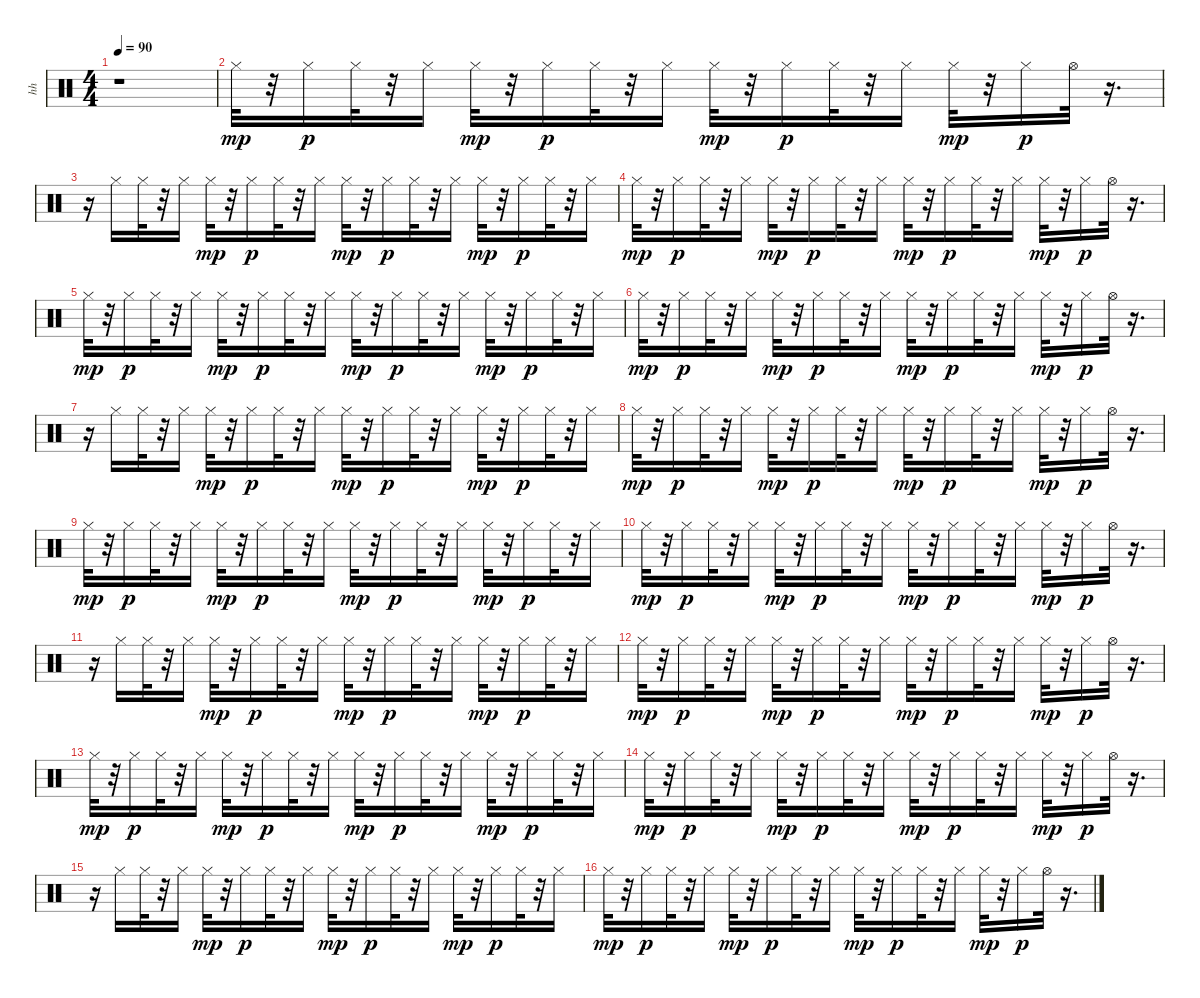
\track ("hh" "hh") {instrument percussion}
\staff {score}
\articulation defaults
\ts (4 4)
\tempo 90
\clef neutral
\ks c
r.1{dy mp} |
"Hi-Hat (closed)".32 r.32 "Hi-Hat (closed)".16{dy p} "Hi-Hat (closed)".32 r.32 "Hi-Hat (closed)".16 "Hi-Hat (closed)".32{dy mp} r.32 "Hi-Hat (closed)".16{dy p} "Hi-Hat (closed)".32 r.32 "Hi-Hat (closed)".16 "Hi-Hat (closed)".32{dy mp} r.32 "Hi-Hat (closed)".16{dy p} "Hi-Hat (closed)".32 r.32 "Hi-Hat (closed)".16 "Hi-Hat (closed)".32{dy mp} r.32 "Hi-Hat (closed)".16{dy p} "Hi-Hat (open)".32 r.16{d} |
r.16 "Hi-Hat (closed)".16 "Hi-Hat (closed)".32 r.32 "Hi-Hat (closed)".16 "Hi-Hat (closed)".32{dy mp} r.32 "Hi-Hat (closed)".16{dy p} "Hi-Hat (closed)".32 r.32 "Hi-Hat (closed)".16 "Hi-Hat (closed)".32{dy mp} r.32 "Hi-Hat (closed)".16{dy p} "Hi-Hat (closed)".32 r.32 "Hi-Hat (closed)".16 "Hi-Hat (closed)".32{dy mp} r.32 "Hi-Hat (closed)".16{dy p} "Hi-Hat (closed)".32 r.32 "Hi-Hat (closed)".16 |
"Hi-Hat (closed)".32{dy mp} r.32 "Hi-Hat (closed)".16{dy p} "Hi-Hat (closed)".32 r.32 "Hi-Hat (closed)".16 "Hi-Hat (closed)".32{dy mp} r.32 "Hi-Hat (closed)".16{dy p} "Hi-Hat (closed)".32 r.32 "Hi-Hat (closed)".16 "Hi-Hat (closed)".32{dy mp} r.32 "Hi-Hat (closed)".16{dy p} "Hi-Hat (closed)".32 r.32 "Hi-Hat (closed)".16 "Hi-Hat (closed)".32{dy mp} r.32 "Hi-Hat (closed)".16{dy p} "Hi-Hat (open)".32 r.16{d} |
"Hi-Hat (closed)".32{dy mp} r.32 "Hi-Hat (closed)".16{dy p} "Hi-Hat (closed)".32 r.32 "Hi-Hat (closed)".16 "Hi-Hat (closed)".32{dy mp} r.32 "Hi-Hat (closed)".16{dy p} "Hi-Hat (closed)".32 r.32 "Hi-Hat (closed)".16 "Hi-Hat (closed)".32{dy mp} r.32 "Hi-Hat (closed)".16{dy p} "Hi-Hat (closed)".32 r.32 "Hi-Hat (closed)".16 "Hi-Hat (closed)".32{dy mp} r.32 "Hi-Hat (closed)".16{dy p} "Hi-Hat (closed)".32 r.32 "Hi-Hat (closed)".16 |
"Hi-Hat (closed)".32{dy mp} r.32 "Hi-Hat (closed)".16{dy p} "Hi-Hat (closed)".32 r.32 "Hi-Hat (closed)".16 "Hi-Hat (closed)".32{dy mp} r.32 "Hi-Hat (closed)".16{dy p} "Hi-Hat (closed)".32 r.32 "Hi-Hat (closed)".16 "Hi-Hat (closed)".32{dy mp} r.32 "Hi-Hat (closed)".16{dy p} "Hi-Hat (closed)".32 r.32 "Hi-Hat (closed)".16 "Hi-Hat (closed)".32{dy mp} r.32 "Hi-Hat (closed)".16{dy p} "Hi-Hat (open)".32 r.16{d} |
r.16 "Hi-Hat (closed)".16 "Hi-Hat (closed)".32 r.32 "Hi-Hat (closed)".16 "Hi-Hat (closed)".32{dy mp} r.32 "Hi-Hat (closed)".16{dy p} "Hi-Hat (closed)".32 r.32 "Hi-Hat (closed)".16 "Hi-Hat (closed)".32{dy mp} r.32 "Hi-Hat (closed)".16{dy p} "Hi-Hat (closed)".32 r.32 "Hi-Hat (closed)".16 "Hi-Hat (closed)".32{dy mp} r.32 "Hi-Hat (closed)".16{dy p} "Hi-Hat (closed)".32 r.32 "Hi-Hat (closed)".16 |
"Hi-Hat (closed)".32{dy mp} r.32 "Hi-Hat (closed)".16{dy p} "Hi-Hat (closed)".32 r.32 "Hi-Hat (closed)".16 "Hi-Hat (closed)".32{dy mp} r.32 "Hi-Hat (closed)".16{dy p} "Hi-Hat (closed)".32 r.32 "Hi-Hat (closed)".16 "Hi-Hat (closed)".32{dy mp} r.32 "Hi-Hat (closed)".16{dy p} "Hi-Hat (closed)".32 r.32 "Hi-Hat (closed)".16 "Hi-Hat (closed)".32{dy mp} r.32 "Hi-Hat (closed)".16{dy p} "Hi-Hat (open)".32 r.16{d} |
"Hi-Hat (closed)".32{dy mp} r.32 "Hi-Hat (closed)".16{dy p} "Hi-Hat (closed)".32 r.32 "Hi-Hat (closed)".16 "Hi-Hat (closed)".32{dy mp} r.32 "Hi-Hat (closed)".16{dy p} "Hi-Hat (closed)".32 r.32 "Hi-Hat (closed)".16 "Hi-Hat (closed)".32{dy mp} r.32 "Hi-Hat (closed)".16{dy p} "Hi-Hat (closed)".32 r.32 "Hi-Hat (closed)".16 "Hi-Hat (closed)".32{dy mp} r.32 "Hi-Hat (closed)".16{dy p} "Hi-Hat (closed)".32 r.32 "Hi-Hat (closed)".16 |
"Hi-Hat (closed)".32{dy mp} r.32 "Hi-Hat (closed)".16{dy p} "Hi-Hat (closed)".32 r.32 "Hi-Hat (closed)".16 "Hi-Hat (closed)".32{dy mp} r.32 "Hi-Hat (closed)".16{dy p} "Hi-Hat (closed)".32 r.32 "Hi-Hat (closed)".16 "Hi-Hat (closed)".32{dy mp} r.32 "Hi-Hat (closed)".16{dy p} "Hi-Hat (closed)".32 r.32 "Hi-Hat (closed)".16 "Hi-Hat (closed)".32{dy mp} r.32 "Hi-Hat (closed)".16{dy p} "Hi-Hat (open)".32 r.16{d} |
r.16 "Hi-Hat (closed)".16 "Hi-Hat (closed)".32 r.32 "Hi-Hat (closed)".16 "Hi-Hat (closed)".32{dy mp} r.32 "Hi-Hat (closed)".16{dy p} "Hi-Hat (closed)".32 r.32 "Hi-Hat (closed)".16 "Hi-Hat (closed)".32{dy mp} r.32 "Hi-Hat (closed)".16{dy p} "Hi-Hat (closed)".32 r.32 "Hi-Hat (closed)".16 "Hi-Hat (closed)".32{dy mp} r.32 "Hi-Hat (closed)".16{dy p} "Hi-Hat (closed)".32 r.32 "Hi-Hat (closed)".16 |
"Hi-Hat (closed)".32{dy mp} r.32 "Hi-Hat (closed)".16{dy p} "Hi-Hat (closed)".32 r.32 "Hi-Hat (closed)".16 "Hi-Hat (closed)".32{dy mp} r.32 "Hi-Hat (closed)".16{dy p} "Hi-Hat (closed)".32 r.32 "Hi-Hat (closed)".16 "Hi-Hat (closed)".32{dy mp} r.32 "Hi-Hat (closed)".16{dy p} "Hi-Hat (closed)".32 r.32 "Hi-Hat (closed)".16 "Hi-Hat (closed)".32{dy mp} r.32 "Hi-Hat (closed)".16{dy p} "Hi-Hat (open)".32 r.16{d} |
"Hi-Hat (closed)".32{dy mp} r.32 "Hi-Hat (closed)".16{dy p} "Hi-Hat (closed)".32 r.32 "Hi-Hat (closed)".16 "Hi-Hat (closed)".32{dy mp} r.32 "Hi-Hat (closed)".16{dy p} "Hi-Hat (closed)".32 r.32 "Hi-Hat (closed)".16 "Hi-Hat (closed)".32{dy mp} r.32 "Hi-Hat (closed)".16{dy p} "Hi-Hat (closed)".32 r.32 "Hi-Hat (closed)".16 "Hi-Hat (closed)".32{dy mp} r.32 "Hi-Hat (closed)".16{dy p} "Hi-Hat (closed)".32 r.32 "Hi-Hat (closed)".16 |
"Hi-Hat (closed)".32{dy mp} r.32 "Hi-Hat (closed)".16{dy p} "Hi-Hat (closed)".32 r.32 "Hi-Hat (closed)".16 "Hi-Hat (closed)".32{dy mp} r.32 "Hi-Hat (closed)".16{dy p} "Hi-Hat (closed)".32 r.32 "Hi-Hat (closed)".16 "Hi-Hat (closed)".32{dy mp} r.32 "Hi-Hat (closed)".16{dy p} "Hi-Hat (closed)".32 r.32 "Hi-Hat (closed)".16 "Hi-Hat (closed)".32{dy mp} r.32 "Hi-Hat (closed)".16{dy p} "Hi-Hat (open)".32 r.16{d} |
r.16 "Hi-Hat (closed)".16 "Hi-Hat (closed)".32 r.32 "Hi-Hat (closed)".16 "Hi-Hat (closed)".32{dy mp} r.32 "Hi-Hat (closed)".16{dy p} "Hi-Hat (closed)".32 r.32 "Hi-Hat (closed)".16 "Hi-Hat (closed)".32{dy mp} r.32 "Hi-Hat (closed)".16{dy p} "Hi-Hat (closed)".32 r.32 "Hi-Hat (closed)".16 "Hi-Hat (closed)".32{dy mp} r.32 "Hi-Hat (closed)".16{dy p} "Hi-Hat (closed)".32 r.32 "Hi-Hat (closed)".16 |
"Hi-Hat (closed)".32{dy mp} r.32 "Hi-Hat (closed)".16{dy p} "Hi-Hat (closed)".32 r.32 "Hi-Hat (closed)".16 "Hi-Hat (closed)".32{dy mp} r.32 "Hi-Hat (closed)".16{dy p} "Hi-Hat (closed)".32 r.32 "Hi-Hat (closed)".16 "Hi-Hat (closed)".32{dy mp} r.32 "Hi-Hat (closed)".16{dy p} "Hi-Hat (closed)".32 r.32 "Hi-Hat (closed)".16 "Hi-Hat (closed)".32{dy mp} r.32 "Hi-Hat (closed)".16{dy p} "Hi-Hat (open)".32 r.16{d}
